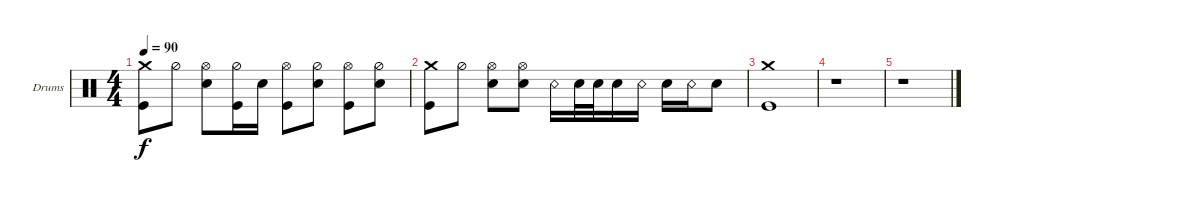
\defaultSystemsLayout 4
\bracketExtendMode groupsimilarinstruments
\firstSystemTrackNameOrientation horizontal
\otherSystemsTrackNameOrientation horizontal
\track ("Jeremiah Green" "Drums") {instrument percussion}
\staff {score}
\articulation defaults
\ts (4 4)
\tempo 90
\clef neutral
\scale
0.333333
\ks c
("Kick (hit)" "Crash medium (hit)").8{dy f} "Hi-Hat (half)".8 ("Hi-Hat (open)" "Snare (hit) 2").8 ("Kick (hit)" "Hi-Hat (half)").16 "Snare (hit) 2".16 ("Kick (hit)" "Hi-Hat (open)").8 ("Hi-Hat (half)" "Snare (hit) 2").8 ("Kick (hit)" "Hi-Hat (open)").8 ("Hi-Hat (half)" "Snare (hit) 2").8 |
\scale
0.333333 ("Kick (hit)" "Crash medium (hit)").8 "Hi-Hat (half)".8 ("Hi-Hat (open)" "Snare (hit) 2").8 ("Hi-Hat (open)" "Snare (hit) 2").8 "Snare (rim shot)".16 "Snare (hit) 2".32 "Snare (hit) 2".32 "Snare (hit) 2".16 "Snare (rim shot)".16 "Snare (hit) 2".16 "Snare (rim shot)".16 "Snare (hit) 2".8 |
("Kick (hit)" "Crash medium (hit)").1 |
r.1 |
r.1
